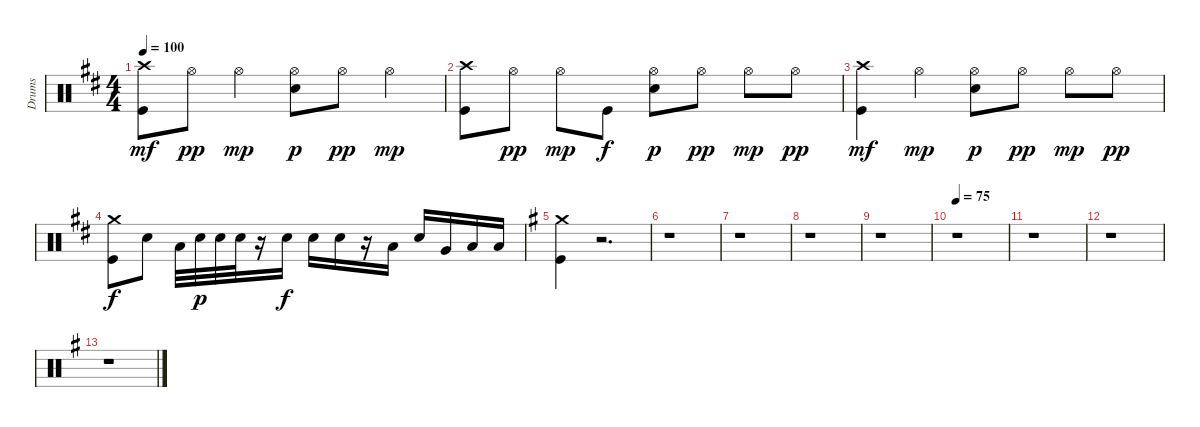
\track ("Drums" "Drums") {instrument percussion}
\staff {score}
\articulation defaults
\ts (4 4)
\tempo 100
\clef neutral
\ks bminor
("Crash high (hit)" "Kick (hit)").8{dy mf} "Hi-Hat (open)".8{dy pp} "Hi-Hat (open)".4{dy mp} ("Hi-Hat (open)" "Snare (hit) 2").8{dy p} "Hi-Hat (open)".8{dy pp} "Hi-Hat (open)".4{dy mp} |
("Crash high (hit)" "Kick (hit)").8 "Hi-Hat (open)".8{dy pp} "Hi-Hat (open)".8{dy mp} "Kick (hit)".8{dy f} ("Hi-Hat (open)" "Snare (hit) 2").8{dy p} "Hi-Hat (open)".8{dy pp} "Hi-Hat (open)".8{dy mp} "Hi-Hat (open)".8{dy pp} |
("Crash high (hit)" "Kick (hit)").4{dy mf} "Hi-Hat (open)".4{dy mp} ("Hi-Hat (open)" "Snare (hit) 2").8{dy p} "Hi-Hat (open)".8{dy pp} "Hi-Hat (open)".8{dy mp} "Hi-Hat (open)".8{dy pp} |
("Crash medium (hit)" "Kick (hit)").8{dy f} "Snare (hit) 2".8 "Low Tom (hit)".32 "Snare (hit) 2".32{dy p} "Snare (hit) 2".32 "Snare (hit) 2".32 r.16 "Snare (hit) 2".16{dy f} "Snare (hit) 2".16 "Snare (hit) 2".16 r.16 "Low Tom (hit)".16 "Snare (hit) 2".16 "Very Low Tom (hit)".16 "Low Floor Tom (hit)".16 "Low Floor Tom (hit)".16 |
\ks g
("Crash medium (hit)" "Kick (hit)").4 r.2{d} |
r.1 |
r.1 |
r.1 |
r.1 |
\tempo 75
r.1 |
r.1 |
r.1 |
r.1
